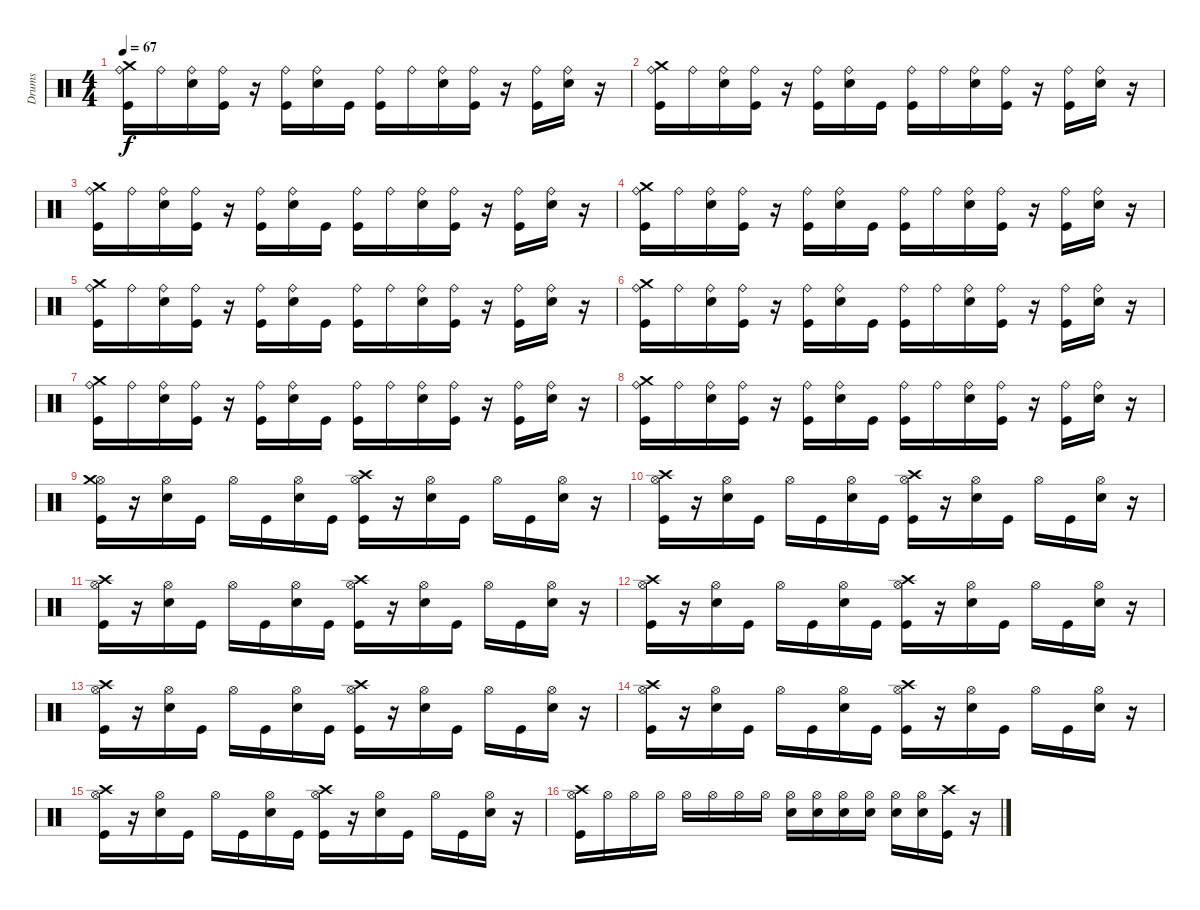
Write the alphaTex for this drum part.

\track ("Drums" "Drums") {instrument percussion}
\staff {score}
\articulation defaults
\ts (4 4)
\tempo 67
\clef neutral
\ks c
("Ride (bell)" "Kick (hit)" "Crash medium (hit)").16{dy f} "Ride (bell)".16 ("Ride (bell)" "Electric Snare (hit)").16 ("Ride (bell)" "Kick (hit)").16 r.16 ("Kick (hit)" "Ride (bell)").16 ("Ride (bell)" "Electric Snare (hit)").16 "Kick (hit)".16 ("Ride (bell)" "Kick (hit)").16 "Ride (bell)".16 ("Ride (bell)" "Electric Snare (hit)").16 ("Kick (hit)" "Ride (bell)").16 r.16 ("Ride (bell)" "Kick (hit)").16 ("Ride (bell)" "Electric Snare (hit)").16 r.16 |
("Crash medium (hit)" "Kick (hit)" "Ride (bell)").16 "Ride (bell)".16 ("Electric Snare (hit)" "Ride (bell)").16 ("Kick (hit)" "Ride (bell)").16 r.16 ("Ride (bell)" "Kick (hit)").16 ("Ride (bell)" "Electric Snare (hit)").16 "Kick (hit)".16 ("Kick (hit)" "Ride (bell)").16 "Ride (bell)".16 ("Ride (bell)" "Electric Snare (hit)").16 ("Ride (bell)" "Kick (hit)").16 r.16 ("Ride (bell)" "Kick (hit)").16 ("Ride (bell)" "Electric Snare (hit)").16 r.16 |
("Ride (bell)" "Crash medium (hit)" "Kick (hit)").16 "Ride (bell)".16 ("Electric Snare (hit)" "Ride (bell)").16 ("Kick (hit)" "Ride (bell)").16 r.16 ("Kick (hit)" "Ride (bell)").16 ("Electric Snare (hit)" "Ride (bell)").16 "Kick (hit)".16 ("Ride (bell)" "Kick (hit)").16 "Ride (bell)".16 ("Ride (bell)" "Electric Snare (hit)").16 ("Ride (bell)" "Kick (hit)").16 r.16 ("Ride (bell)" "Kick (hit)").16 ("Ride (bell)" "Electric Snare (hit)").16 r.16 |
("Crash medium (hit)" "Ride (bell)" "Kick (hit)").16 "Ride (bell)".16 ("Ride (bell)" "Electric Snare (hit)").16 ("Ride (bell)" "Kick (hit)").16 r.16 ("Kick (hit)" "Ride (bell)").16 ("Ride (bell)" "Electric Snare (hit)").16 "Kick (hit)".16 ("Kick (hit)" "Ride (bell)").16 "Ride (bell)".16 ("Electric Snare (hit)" "Ride (bell)").16 ("Ride (bell)" "Kick (hit)").16 r.16 ("Ride (bell)" "Kick (hit)").16 ("Electric Snare (hit)" "Ride (bell)").16 r.16 |
("Ride (bell)" "Crash medium (hit)" "Kick (hit)").16 "Ride (bell)".16 ("Electric Snare (hit)" "Ride (bell)").16 ("Ride (bell)" "Kick (hit)").16 r.16 ("Kick (hit)" "Ride (bell)").16 ("Electric Snare (hit)" "Ride (bell)").16 "Kick (hit)".16 ("Ride (bell)" "Kick (hit)").16 "Ride (bell)".16 ("Ride (bell)" "Electric Snare (hit)").16 ("Ride (bell)" "Kick (hit)").16 r.16 ("Kick (hit)" "Ride (bell)").16 ("Ride (bell)" "Electric Snare (hit)").16 r.16 |
("Crash medium (hit)" "Kick (hit)" "Ride (bell)").16 "Ride (bell)".16 ("Ride (bell)" "Electric Snare (hit)").16 ("Ride (bell)" "Kick (hit)").16 r.16 ("Kick (hit)" "Ride (bell)").16 ("Electric Snare (hit)" "Ride (bell)").16 "Kick (hit)".16 ("Kick (hit)" "Ride (bell)").16 "Ride (bell)".16 ("Ride (bell)" "Electric Snare (hit)").16 ("Ride (bell)" "Kick (hit)").16 r.16 ("Ride (bell)" "Kick (hit)").16 ("Ride (bell)" "Electric Snare (hit)").16 r.16 |
("Kick (hit)" "Crash medium (hit)" "Ride (bell)").16 "Ride (bell)".16 ("Electric Snare (hit)" "Ride (bell)").16 ("Ride (bell)" "Kick (hit)").16 r.16 ("Ride (bell)" "Kick (hit)").16 ("Ride (bell)" "Electric Snare (hit)").16 "Kick (hit)".16 ("Kick (hit)" "Ride (bell)").16 "Ride (bell)".16 ("Electric Snare (hit)" "Ride (bell)").16 ("Kick (hit)" "Ride (bell)").16 r.16 ("Kick (hit)" "Ride (bell)").16 ("Electric Snare (hit)" "Ride (bell)").16 r.16 |
("Ride (bell)" "Kick (hit)" "Crash medium (hit)").16 "Ride (bell)".16 ("Ride (bell)" "Electric Snare (hit)").16 ("Ride (bell)" "Kick (hit)").16 r.16 ("Kick (hit)" "Ride (bell)").16 ("Electric Snare (hit)" "Ride (bell)").16 "Kick (hit)".16 ("Kick (hit)" "Ride (bell)").16 "Ride (bell)".16 ("Electric Snare (hit)" "Ride (bell)").16 ("Ride (bell)" "Kick (hit)").16 r.16 ("Ride (bell)" "Kick (hit)").16 ("Ride (bell)" "Electric Snare (hit)").16 r.16 |
("Hi-Hat (open)" "Kick (hit)" "Crash medium (hit)").16 r.16 ("Electric Snare (hit)" "Hi-Hat (open)").16 "Kick (hit)".16 "Hi-Hat (open)".16 "Kick (hit)".16 ("Hi-Hat (open)" "Electric Snare (hit)").16 "Kick (hit)".16 ("Crash high (hit)" "Hi-Hat (open)" "Kick (hit)").16 r.16 ("Electric Snare (hit)" "Hi-Hat (open)").16 "Kick (hit)".16 "Hi-Hat (open)".16 "Kick (hit)".16 ("Hi-Hat (open)" "Electric Snare (hit)").16 r.16 |
("Crash high (hit)" "Hi-Hat (open)" "Kick (hit)").16 r.16 ("Electric Snare (hit)" "Hi-Hat (open)").16 "Kick (hit)".16 "Hi-Hat (open)".16 "Kick (hit)".16 ("Electric Snare (hit)" "Hi-Hat (open)").16 "Kick (hit)".16 ("Crash high (hit)" "Hi-Hat (open)" "Kick (hit)").16 r.16 ("Hi-Hat (open)" "Electric Snare (hit)").16 "Kick (hit)".16 "Hi-Hat (open)".16 "Kick (hit)".16 ("Electric Snare (hit)" "Hi-Hat (open)").16 r.16 |
("Kick (hit)" "Crash high (hit)" "Hi-Hat (open)").16 r.16 ("Hi-Hat (open)" "Electric Snare (hit)").16 "Kick (hit)".16 "Hi-Hat (open)".16 "Kick (hit)".16 ("Hi-Hat (open)" "Electric Snare (hit)").16 "Kick (hit)".16 ("Crash high (hit)" "Kick (hit)" "Hi-Hat (open)").16 r.16 ("Electric Snare (hit)" "Hi-Hat (open)").16 "Kick (hit)".16 "Hi-Hat (open)".16 "Kick (hit)".16 ("Hi-Hat (open)" "Electric Snare (hit)").16 r.16 |
("Crash high (hit)" "Hi-Hat (open)" "Kick (hit)").16 r.16 ("Hi-Hat (open)" "Electric Snare (hit)").16 "Kick (hit)".16 "Hi-Hat (open)".16 "Kick (hit)".16 ("Electric Snare (hit)" "Hi-Hat (open)").16 "Kick (hit)".16 ("Crash high (hit)" "Kick (hit)" "Hi-Hat (open)").16 r.16 ("Hi-Hat (open)" "Electric Snare (hit)").16 "Kick (hit)".16 "Hi-Hat (open)".16 "Kick (hit)".16 ("Electric Snare (hit)" "Hi-Hat (open)").16 r.16 |
("Kick (hit)" "Hi-Hat (open)" "Crash high (hit)").16 r.16 ("Hi-Hat (open)" "Electric Snare (hit)").16 "Kick (hit)".16 "Hi-Hat (open)".16 "Kick (hit)".16 ("Electric Snare (hit)" "Hi-Hat (open)").16 "Kick (hit)".16 ("Hi-Hat (open)" "Kick (hit)" "Crash high (hit)").16 r.16 ("Hi-Hat (open)" "Electric Snare (hit)").16 "Kick (hit)".16 "Hi-Hat (open)".16 "Kick (hit)".16 ("Hi-Hat (open)" "Electric Snare (hit)").16 r.16 |
("Crash high (hit)" "Hi-Hat (open)" "Kick (hit)").16 r.16 ("Electric Snare (hit)" "Hi-Hat (open)").16 "Kick (hit)".16 "Hi-Hat (open)".16 "Kick (hit)".16 ("Hi-Hat (open)" "Electric Snare (hit)").16 "Kick (hit)".16 ("Crash high (hit)" "Hi-Hat (open)" "Kick (hit)").16 r.16 ("Electric Snare (hit)" "Hi-Hat (open)").16 "Kick (hit)".16 "Hi-Hat (open)".16 "Kick (hit)".16 ("Hi-Hat (open)" "Electric Snare (hit)").16 r.16 |
("Kick (hit)" "Hi-Hat (open)" "Crash high (hit)").16 r.16 ("Electric Snare (hit)" "Hi-Hat (open)").16 "Kick (hit)".16 "Hi-Hat (open)".16 "Kick (hit)".16 ("Hi-Hat (open)" "Electric Snare (hit)").16 "Kick (hit)".16 ("Kick (hit)" "Crash high (hit)" "Hi-Hat (open)").16 r.16 ("Electric Snare (hit)" "Hi-Hat (open)").16 "Kick (hit)".16 "Hi-Hat (open)".16 "Kick (hit)".16 ("Electric Snare (hit)" "Hi-Hat (open)").16 r.16 |
("Hi-Hat (open)" "Crash high (hit)" "Kick (hit)").16 "Hi-Hat (open)".16 "Hi-Hat (open)".16 "Hi-Hat (open)".16 "Hi-Hat (open)".16 "Hi-Hat (open)".16 "Hi-Hat (open)".16 "Hi-Hat (open)".16 ("Electric Snare (hit)" "Hi-Hat (open)").16 ("Hi-Hat (open)" "Electric Snare (hit)").16 ("Electric Snare (hit)" "Hi-Hat (open)").16 ("Hi-Hat (open)" "Electric Snare (hit)").16 ("Electric Snare (hit)" "Hi-Hat (open)").16 ("Electric Snare (hit)" "Hi-Hat (open)").16 ("Kick (hit)" "Crash high (hit)").16 r.16
